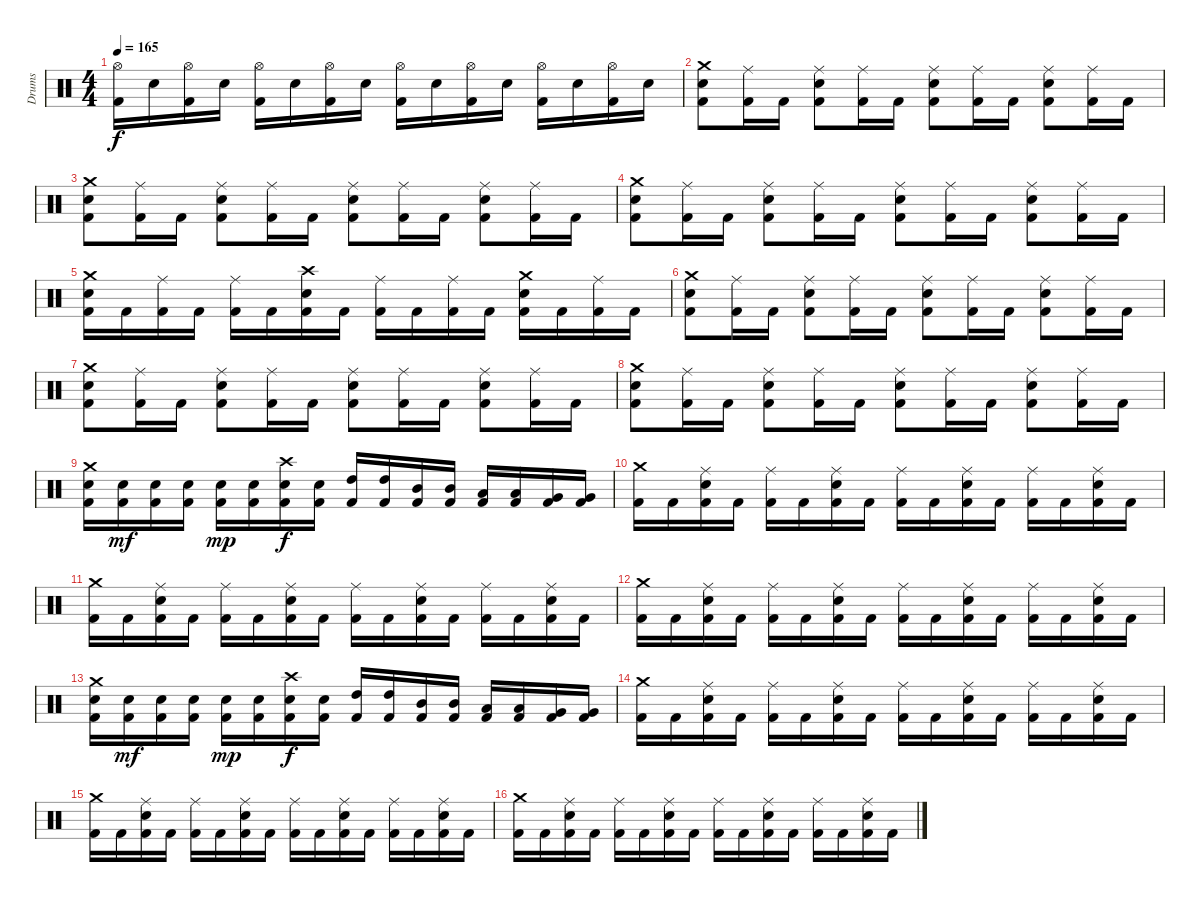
\track ("Drums" "Drums") {instrument percussion}
\staff {score}
\articulation defaults
\ts (4 4)
\tempo 165
\clef neutral
\ks c
("Hi-Hat (open)" "Kick (hit) 2").16{dy f} "Electric Snare (hit)".16 ("Hi-Hat (open)" "Kick (hit) 2").16 "Electric Snare (hit)".16 ("Hi-Hat (open)" "Kick (hit) 2").16 "Electric Snare (hit)".16 ("Hi-Hat (open)" "Kick (hit) 2").16 "Electric Snare (hit)".16 ("Hi-Hat (open)" "Kick (hit) 2").16 "Electric Snare (hit)".16 ("Hi-Hat (open)" "Kick (hit) 2").16 "Electric Snare (hit)".16 ("Hi-Hat (open)" "Kick (hit) 2").16 "Electric Snare (hit)".16 ("Hi-Hat (open)" "Kick (hit) 2").16 "Electric Snare (hit)".16 |
("Crash medium (hit)" "Electric Snare (hit)" "Kick (hit) 2").8 ("Ride (middle)" "Kick (hit) 2").16 "Kick (hit) 2".16 ("Ride (middle)" "Electric Snare (hit)" "Kick (hit) 2").8 ("Ride (middle)" "Kick (hit) 2").16 "Kick (hit) 2".16 ("Ride (middle)" "Electric Snare (hit)" "Kick (hit) 2").8 ("Ride (middle)" "Kick (hit) 2").16 "Kick (hit) 2".16 ("Ride (middle)" "Electric Snare (hit)" "Kick (hit) 2").8 ("Ride (middle)" "Kick (hit) 2").16 "Kick (hit) 2".16 |
("Crash medium (hit)" "Electric Snare (hit)" "Kick (hit) 2").8 ("Ride (middle)" "Kick (hit) 2").16 "Kick (hit) 2".16 ("Ride (middle)" "Electric Snare (hit)" "Kick (hit) 2").8 ("Ride (middle)" "Kick (hit) 2").16 "Kick (hit) 2".16 ("Ride (middle)" "Electric Snare (hit)" "Kick (hit) 2").8 ("Ride (middle)" "Kick (hit) 2").16 "Kick (hit) 2".16 ("Ride (middle)" "Electric Snare (hit)" "Kick (hit) 2").8 ("Ride (middle)" "Kick (hit) 2").16 "Kick (hit) 2".16 |
("Crash medium (hit)" "Electric Snare (hit)" "Kick (hit) 2").8 ("Ride (middle)" "Kick (hit) 2").16 "Kick (hit) 2".16 ("Ride (middle)" "Electric Snare (hit)" "Kick (hit) 2").8 ("Ride (middle)" "Kick (hit) 2").16 "Kick (hit) 2".16 ("Ride (middle)" "Electric Snare (hit)" "Kick (hit) 2").8 ("Ride (middle)" "Kick (hit) 2").16 "Kick (hit) 2".16 ("Ride (middle)" "Electric Snare (hit)" "Kick (hit) 2").8 ("Ride (middle)" "Kick (hit) 2").16 "Kick (hit) 2".16 |
("Crash medium (hit)" "Electric Snare (hit)" "Kick (hit) 2").16 "Kick (hit) 2".16 ("Ride (middle)" "Kick (hit) 2").16 "Kick (hit) 2".16 ("Ride (middle)" "Kick (hit) 2").16 "Kick (hit) 2".16 ("Crash high (hit)" "Electric Snare (hit)" "Kick (hit) 2").16 "Kick (hit) 2".16 ("Ride (middle)" "Kick (hit) 2").16 "Kick (hit) 2".16 ("Ride (middle)" "Kick (hit) 2").16 "Kick (hit) 2".16 ("Crash medium (hit)" "Electric Snare (hit)" "Kick (hit) 2").16 "Kick (hit) 2".16 ("Ride (middle)" "Kick (hit) 2").16 "Kick (hit) 2".16 |
("Crash medium (hit)" "Electric Snare (hit)" "Kick (hit) 2").8 ("Ride (middle)" "Kick (hit) 2").16 "Kick (hit) 2".16 ("Ride (middle)" "Electric Snare (hit)" "Kick (hit) 2").8 ("Ride (middle)" "Kick (hit) 2").16 "Kick (hit) 2".16 ("Ride (middle)" "Electric Snare (hit)" "Kick (hit) 2").8 ("Ride (middle)" "Kick (hit) 2").16 "Kick (hit) 2".16 ("Ride (middle)" "Electric Snare (hit)" "Kick (hit) 2").8 ("Ride (middle)" "Kick (hit) 2").16 "Kick (hit) 2".16 |
("Crash medium (hit)" "Electric Snare (hit)" "Kick (hit) 2").8 ("Ride (middle)" "Kick (hit) 2").16 "Kick (hit) 2".16 ("Ride (middle)" "Electric Snare (hit)" "Kick (hit) 2").8 ("Ride (middle)" "Kick (hit) 2").16 "Kick (hit) 2".16 ("Ride (middle)" "Electric Snare (hit)" "Kick (hit) 2").8 ("Ride (middle)" "Kick (hit) 2").16 "Kick (hit) 2".16 ("Ride (middle)" "Electric Snare (hit)" "Kick (hit) 2").8 ("Ride (middle)" "Kick (hit) 2").16 "Kick (hit) 2".16 |
("Crash medium (hit)" "Electric Snare (hit)" "Kick (hit) 2").8 ("Ride (middle)" "Kick (hit) 2").16 "Kick (hit) 2".16 ("Ride (middle)" "Electric Snare (hit)" "Kick (hit) 2").8 ("Ride (middle)" "Kick (hit) 2").16 "Kick (hit) 2".16 ("Ride (middle)" "Electric Snare (hit)" "Kick (hit) 2").8 ("Ride (middle)" "Kick (hit) 2").16 "Kick (hit) 2".16 ("Ride (middle)" "Electric Snare (hit)" "Kick (hit) 2").8 ("Ride (middle)" "Kick (hit) 2").16 "Kick (hit) 2".16 |
("Crash medium (hit)" "Electric Snare (hit)" "Kick (hit) 2").16 ("Electric Snare (hit)" "Kick (hit) 2").16{dy mf} ("Electric Snare (hit)" "Kick (hit) 2").16 ("Electric Snare (hit)" "Kick (hit) 2").16 ("Electric Snare (hit)" "Kick (hit) 2").16{dy mp} ("Electric Snare (hit)" "Kick (hit) 2").16 ("Crash high (hit)" "Electric Snare (hit)" "Kick (hit) 2").16{dy f} ("Electric Snare (hit)" "Kick (hit) 2").16 ("High Tom (hit)" "Kick (hit) 2").16 ("High Tom (hit)" "Kick (hit) 2").16 ("Mid Tom (hit)" "Kick (hit) 2").16 ("Mid Tom (hit)" "Kick (hit) 2").16 ("Low Tom (hit)" "Kick (hit) 2").16 ("Low Tom (hit)" "Kick (hit) 2").16 ("Very Low Tom (hit)" "Kick (hit) 2").16 ("Very Low Tom (hit)" "Kick (hit) 2").16 |
("Crash medium (hit)" "Kick (hit) 2").16 "Kick (hit) 2".16 ("Ride (middle)" "Electric Snare (hit)" "Kick (hit) 2").16 "Kick (hit) 2".16 ("Ride (middle)" "Kick (hit) 2").16 "Kick (hit) 2".16 ("Ride (middle)" "Electric Snare (hit)" "Kick (hit) 2").16 "Kick (hit) 2".16 ("Ride (middle)" "Kick (hit) 2").16 "Kick (hit) 2".16 ("Ride (middle)" "Electric Snare (hit)" "Kick (hit) 2").16 "Kick (hit) 2".16 ("Ride (middle)" "Kick (hit) 2").16 "Kick (hit) 2".16 ("Ride (middle)" "Electric Snare (hit)" "Kick (hit) 2").16 "Kick (hit) 2".16 |
("Crash medium (hit)" "Kick (hit) 2").16 "Kick (hit) 2".16 ("Ride (middle)" "Electric Snare (hit)" "Kick (hit) 2").16 "Kick (hit) 2".16 ("Ride (middle)" "Kick (hit) 2").16 "Kick (hit) 2".16 ("Ride (middle)" "Electric Snare (hit)" "Kick (hit) 2").16 "Kick (hit) 2".16 ("Ride (middle)" "Kick (hit) 2").16 "Kick (hit) 2".16 ("Ride (middle)" "Electric Snare (hit)" "Kick (hit) 2").16 "Kick (hit) 2".16 ("Ride (middle)" "Kick (hit) 2").16 "Kick (hit) 2".16 ("Ride (middle)" "Electric Snare (hit)" "Kick (hit) 2").16 "Kick (hit) 2".16 |
("Crash medium (hit)" "Kick (hit) 2").16 "Kick (hit) 2".16 ("Ride (middle)" "Electric Snare (hit)" "Kick (hit) 2").16 "Kick (hit) 2".16 ("Ride (middle)" "Kick (hit) 2").16 "Kick (hit) 2".16 ("Ride (middle)" "Electric Snare (hit)" "Kick (hit) 2").16 "Kick (hit) 2".16 ("Ride (middle)" "Kick (hit) 2").16 "Kick (hit) 2".16 ("Ride (middle)" "Electric Snare (hit)" "Kick (hit) 2").16 "Kick (hit) 2".16 ("Ride (middle)" "Kick (hit) 2").16 "Kick (hit) 2".16 ("Ride (middle)" "Electric Snare (hit)" "Kick (hit) 2").16 "Kick (hit) 2".16 |
("Crash medium (hit)" "Electric Snare (hit)" "Kick (hit) 2").16 ("Electric Snare (hit)" "Kick (hit) 2").16{dy mf} ("Electric Snare (hit)" "Kick (hit) 2").16 ("Electric Snare (hit)" "Kick (hit) 2").16 ("Electric Snare (hit)" "Kick (hit) 2").16{dy mp} ("Electric Snare (hit)" "Kick (hit) 2").16 ("Crash high (hit)" "Electric Snare (hit)" "Kick (hit) 2").16{dy f} ("Electric Snare (hit)" "Kick (hit) 2").16 ("High Tom (hit)" "Kick (hit) 2").16 ("High Tom (hit)" "Kick (hit) 2").16 ("Mid Tom (hit)" "Kick (hit) 2").16 ("Mid Tom (hit)" "Kick (hit) 2").16 ("Low Tom (hit)" "Kick (hit) 2").16 ("Low Tom (hit)" "Kick (hit) 2").16 ("Very Low Tom (hit)" "Kick (hit) 2").16 ("Very Low Tom (hit)" "Kick (hit) 2").16 |
("Crash medium (hit)" "Kick (hit) 2").16 "Kick (hit) 2".16 ("Ride (middle)" "Electric Snare (hit)" "Kick (hit) 2").16 "Kick (hit) 2".16 ("Ride (middle)" "Kick (hit) 2").16 "Kick (hit) 2".16 ("Ride (middle)" "Electric Snare (hit)" "Kick (hit) 2").16 "Kick (hit) 2".16 ("Ride (middle)" "Kick (hit) 2").16 "Kick (hit) 2".16 ("Ride (middle)" "Electric Snare (hit)" "Kick (hit) 2").16 "Kick (hit) 2".16 ("Ride (middle)" "Kick (hit) 2").16 "Kick (hit) 2".16 ("Ride (middle)" "Electric Snare (hit)" "Kick (hit) 2").16 "Kick (hit) 2".16 |
("Crash medium (hit)" "Kick (hit) 2").16 "Kick (hit) 2".16 ("Ride (middle)" "Electric Snare (hit)" "Kick (hit) 2").16 "Kick (hit) 2".16 ("Ride (middle)" "Kick (hit) 2").16 "Kick (hit) 2".16 ("Ride (middle)" "Electric Snare (hit)" "Kick (hit) 2").16 "Kick (hit) 2".16 ("Ride (middle)" "Kick (hit) 2").16 "Kick (hit) 2".16 ("Ride (middle)" "Electric Snare (hit)" "Kick (hit) 2").16 "Kick (hit) 2".16 ("Ride (middle)" "Kick (hit) 2").16 "Kick (hit) 2".16 ("Ride (middle)" "Electric Snare (hit)" "Kick (hit) 2").16 "Kick (hit) 2".16 |
("Crash medium (hit)" "Kick (hit) 2").16 "Kick (hit) 2".16 ("Ride (middle)" "Electric Snare (hit)" "Kick (hit) 2").16 "Kick (hit) 2".16 ("Ride (middle)" "Kick (hit) 2").16 "Kick (hit) 2".16 ("Ride (middle)" "Electric Snare (hit)" "Kick (hit) 2").16 "Kick (hit) 2".16 ("Ride (middle)" "Kick (hit) 2").16 "Kick (hit) 2".16 ("Ride (middle)" "Electric Snare (hit)" "Kick (hit) 2").16 "Kick (hit) 2".16 ("Ride (middle)" "Kick (hit) 2").16 "Kick (hit) 2".16 ("Ride (middle)" "Electric Snare (hit)" "Kick (hit) 2").16 "Kick (hit) 2".16
